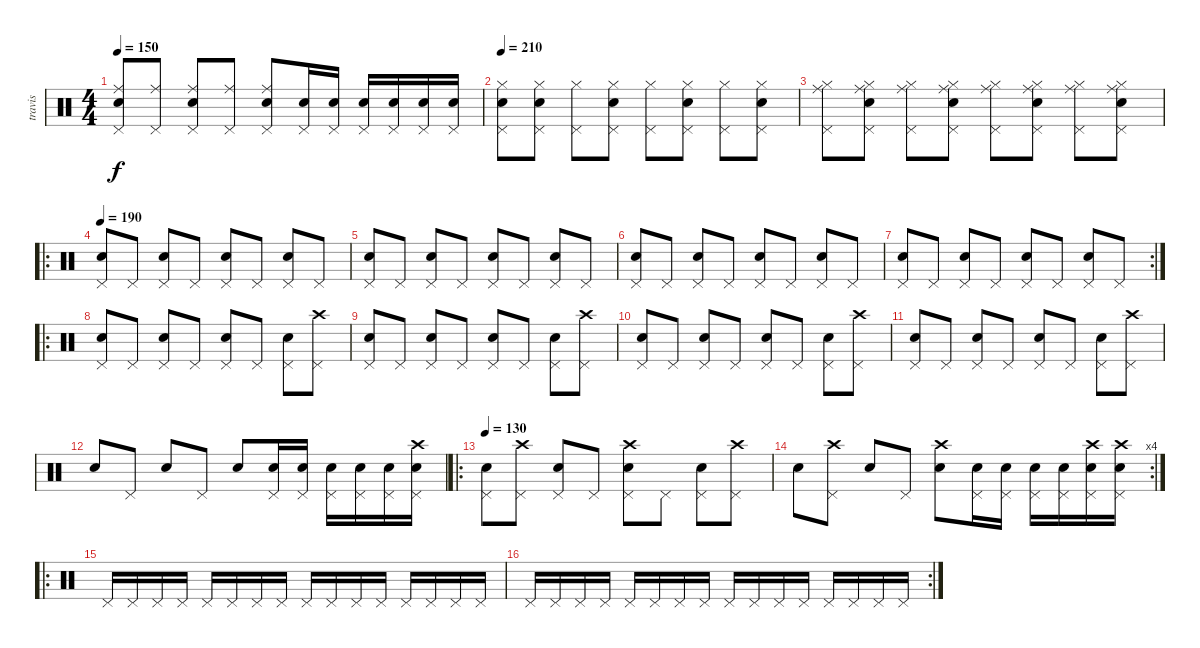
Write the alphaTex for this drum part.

\track ("travis" "travis") {instrument percussion}
\staff {score}
\articulation defaults
\ts (4 4)
\tempo 150
\clef neutral
\ks c
("Pedal Hi-Hat (hit)" "Ride (middle)" "Electric Snare (hit)").8{dy f} ("Pedal Hi-Hat (hit)" "Ride (middle)").8 ("Pedal Hi-Hat (hit)" "Ride (middle)" "Electric Snare (hit)").8 ("Pedal Hi-Hat (hit)" "Ride (middle)").8 ("Pedal Hi-Hat (hit)" "Ride (middle)" "Electric Snare (hit)").8 ("Pedal Hi-Hat (hit)" "Electric Snare (hit)").16 ("Pedal Hi-Hat (hit)" "Snare (hit) 2").16 ("Pedal Hi-Hat (hit)" "Electric Snare (hit)").16 ("Pedal Hi-Hat (hit)" "Snare (hit) 2").16 ("Pedal Hi-Hat (hit)" "Electric Snare (hit)").16 ("Pedal Hi-Hat (hit)" "Snare (hit) 2").16 |
\tempo 150
\tempo 210
("Pedal Hi-Hat (hit)" "Hi-Hat (closed)" "Electric Snare (hit)").8{volume 16} ("Pedal Hi-Hat (hit)" "Hi-Hat (closed)" "Electric Snare (hit)").8 ("Pedal Hi-Hat (hit)" "Hi-Hat (closed)").8 ("Pedal Hi-Hat (hit)" "Hi-Hat (closed)" "Electric Snare (hit)").8 ("Pedal Hi-Hat (hit)" "Hi-Hat (closed)").8 ("Pedal Hi-Hat (hit)" "Hi-Hat (closed)" "Electric Snare (hit)").8 ("Pedal Hi-Hat (hit)" "Hi-Hat (closed)").8 ("Pedal Hi-Hat (hit)" "Hi-Hat (closed)" "Electric Snare (hit)").8 |
("Pedal Hi-Hat (hit)" "Ride (middle)" "Hi-Hat (closed)").8 ("Pedal Hi-Hat (hit)" "Ride (middle)" "Hi-Hat (closed)" "Electric Snare (hit)").8 ("Pedal Hi-Hat (hit)" "Ride (middle)" "Hi-Hat (closed)").8 ("Pedal Hi-Hat (hit)" "Ride (middle)" "Hi-Hat (closed)" "Electric Snare (hit)").8 ("Pedal Hi-Hat (hit)" "Ride (middle)" "Hi-Hat (closed)").8 ("Pedal Hi-Hat (hit)" "Ride (middle)" "Hi-Hat (closed)" "Electric Snare (hit)").8 ("Pedal Hi-Hat (hit)" "Ride (middle)" "Hi-Hat (closed)").8 ("Pedal Hi-Hat (hit)" "Ride (middle)" "Hi-Hat (closed)" "Electric Snare (hit)").8 |
\ro
\tempo 190
("Pedal Hi-Hat (hit)" "Electric Snare (hit)").8 "Pedal Hi-Hat (hit)".8 ("Pedal Hi-Hat (hit)" "Electric Snare (hit)").8 "Pedal Hi-Hat (hit)".8 ("Pedal Hi-Hat (hit)" "Electric Snare (hit)").8 "Pedal Hi-Hat (hit)".8 ("Pedal Hi-Hat (hit)" "Electric Snare (hit)").8 "Pedal Hi-Hat (hit)".8 |
("Pedal Hi-Hat (hit)" "Electric Snare (hit)").8 "Pedal Hi-Hat (hit)".8 ("Pedal Hi-Hat (hit)" "Electric Snare (hit)").8 "Pedal Hi-Hat (hit)".8 ("Pedal Hi-Hat (hit)" "Electric Snare (hit)").8 "Pedal Hi-Hat (hit)".8 ("Pedal Hi-Hat (hit)" "Electric Snare (hit)").8 "Pedal Hi-Hat (hit)".8 |
("Pedal Hi-Hat (hit)" "Electric Snare (hit)").8 "Pedal Hi-Hat (hit)".8 ("Pedal Hi-Hat (hit)" "Electric Snare (hit)").8 "Pedal Hi-Hat (hit)".8 ("Pedal Hi-Hat (hit)" "Electric Snare (hit)").8 "Pedal Hi-Hat (hit)".8 ("Pedal Hi-Hat (hit)" "Electric Snare (hit)").8 "Pedal Hi-Hat (hit)".8 |
\rc 2
("Pedal Hi-Hat (hit)" "Electric Snare (hit)").8 "Pedal Hi-Hat (hit)".8 ("Pedal Hi-Hat (hit)" "Electric Snare (hit)").8 "Pedal Hi-Hat (hit)".8 ("Pedal Hi-Hat (hit)" "Electric Snare (hit)").8 "Pedal Hi-Hat (hit)".8 ("Pedal Hi-Hat (hit)" "Electric Snare (hit)").8 "Pedal Hi-Hat (hit)".8 |
\ro
("Pedal Hi-Hat (hit)" "Electric Snare (hit)").8 "Pedal Hi-Hat (hit)".8 ("Pedal Hi-Hat (hit)" "Electric Snare (hit)").8 "Pedal Hi-Hat (hit)".8 ("Pedal Hi-Hat (hit)" "Electric Snare (hit)").8 "Pedal Hi-Hat (hit)".8 ("Pedal Hi-Hat (hit)" "Electric Snare (hit)").8 ("Pedal Hi-Hat (hit)" "Crash high (hit)").8 |
("Pedal Hi-Hat (hit)" "Electric Snare (hit)").8 "Pedal Hi-Hat (hit)".8 ("Pedal Hi-Hat (hit)" "Electric Snare (hit)").8 "Pedal Hi-Hat (hit)".8 ("Pedal Hi-Hat (hit)" "Electric Snare (hit)").8 "Pedal Hi-Hat (hit)".8 ("Pedal Hi-Hat (hit)" "Electric Snare (hit)").8 ("Pedal Hi-Hat (hit)" "Crash high (hit)").8 |
("Pedal Hi-Hat (hit)" "Electric Snare (hit)").8 "Pedal Hi-Hat (hit)".8 ("Pedal Hi-Hat (hit)" "Electric Snare (hit)").8 "Pedal Hi-Hat (hit)".8 ("Pedal Hi-Hat (hit)" "Electric Snare (hit)").8 "Pedal Hi-Hat (hit)".8 ("Pedal Hi-Hat (hit)" "Electric Snare (hit)").8 ("Pedal Hi-Hat (hit)" "Crash high (hit)").8 |
("Pedal Hi-Hat (hit)" "Electric Snare (hit)").8 "Pedal Hi-Hat (hit)".8 ("Pedal Hi-Hat (hit)" "Electric Snare (hit)").8 "Pedal Hi-Hat (hit)".8 ("Pedal Hi-Hat (hit)" "Electric Snare (hit)").8 "Pedal Hi-Hat (hit)".8 ("Pedal Hi-Hat (hit)" "Electric Snare (hit)").8 ("Pedal Hi-Hat (hit)" "Crash high (hit)").8 |
"Electric Snare (hit)".8 "Pedal Hi-Hat (hit)".8 "Electric Snare (hit)".8 "Pedal Hi-Hat (hit)".8 "Electric Snare (hit)".8 ("Pedal Hi-Hat (hit)" "Snare (hit) 2").16 ("Pedal Hi-Hat (hit)" "Electric Snare (hit)").16 ("Pedal Hi-Hat (hit)" "Snare (hit) 2").16 ("Pedal Hi-Hat (hit)" "Electric Snare (hit)").16 ("Pedal Hi-Hat (hit)" "Snare (hit) 2").16 ("Pedal Hi-Hat (hit)" "Crash high (hit)" "Electric Snare (hit)").16 |
\ro
\tempo 130
("Pedal Hi-Hat (hit)" "Electric Snare (hit)").8 ("Pedal Hi-Hat (hit)" "Crash high (hit)").8 ("Pedal Hi-Hat (hit)" "Electric Snare (hit)").8 "Pedal Hi-Hat (hit)".8 ("Pedal Hi-Hat (hit)" "Crash high (hit)" "Electric Snare (hit)").8 "Pedal Hi-Hat (hit)".8 ("Pedal Hi-Hat (hit)" "Electric Snare (hit)").8 ("Pedal Hi-Hat (hit)" "Crash high (hit)").8 |
\rc 4 "Electric Snare (hit)".8
("Pedal Hi-Hat (hit)" "Crash high (hit)").8 "Electric Snare (hit)".8 "Pedal Hi-Hat (hit)".8 ("Crash high (hit)" "Electric Snare (hit)").8 ("Pedal Hi-Hat (hit)" "Snare (hit) 2").16 ("Pedal Hi-Hat (hit)" "Electric Snare (hit)").16 ("Pedal Hi-Hat (hit)" "Snare (hit) 2").16 ("Pedal Hi-Hat (hit)" "Electric Snare (hit)").16 ("Pedal Hi-Hat (hit)" "Crash high (hit)" "Snare (hit) 2").16 ("Pedal Hi-Hat (hit)" "Crash high (hit)" "Electric Snare (hit)").16 |
\ro "Pedal Hi-Hat (hit)".16 "Pedal Hi-Hat (hit)".16 "Pedal Hi-Hat (hit)".16 "Pedal Hi-Hat (hit)".16 "Pedal Hi-Hat (hit)".16 "Pedal Hi-Hat (hit)".16 "Pedal Hi-Hat (hit)".16 "Pedal Hi-Hat (hit)".16 "Pedal Hi-Hat (hit)".16 "Pedal Hi-Hat (hit)".16 "Pedal Hi-Hat (hit)".16 "Pedal Hi-Hat (hit)".16 "Pedal Hi-Hat (hit)".16 "Pedal Hi-Hat (hit)".16 "Pedal Hi-Hat (hit)".16 "Pedal Hi-Hat (hit)".16
|
\rc 2 "Pedal Hi-Hat (hit)".16 "Pedal Hi-Hat (hit)".16 "Pedal Hi-Hat (hit)".16 "Pedal Hi-Hat (hit)".16 "Pedal Hi-Hat (hit)".16 "Pedal Hi-Hat (hit)".16 "Pedal Hi-Hat (hit)".16 "Pedal Hi-Hat (hit)".16 "Pedal Hi-Hat (hit)".16 "Pedal Hi-Hat (hit)".16 "Pedal Hi-Hat (hit)".16 "Pedal Hi-Hat (hit)".16 "Pedal Hi-Hat (hit)".16 "Pedal Hi-Hat (hit)".16 "Pedal Hi-Hat (hit)".16 "Pedal Hi-Hat (hit)".16
